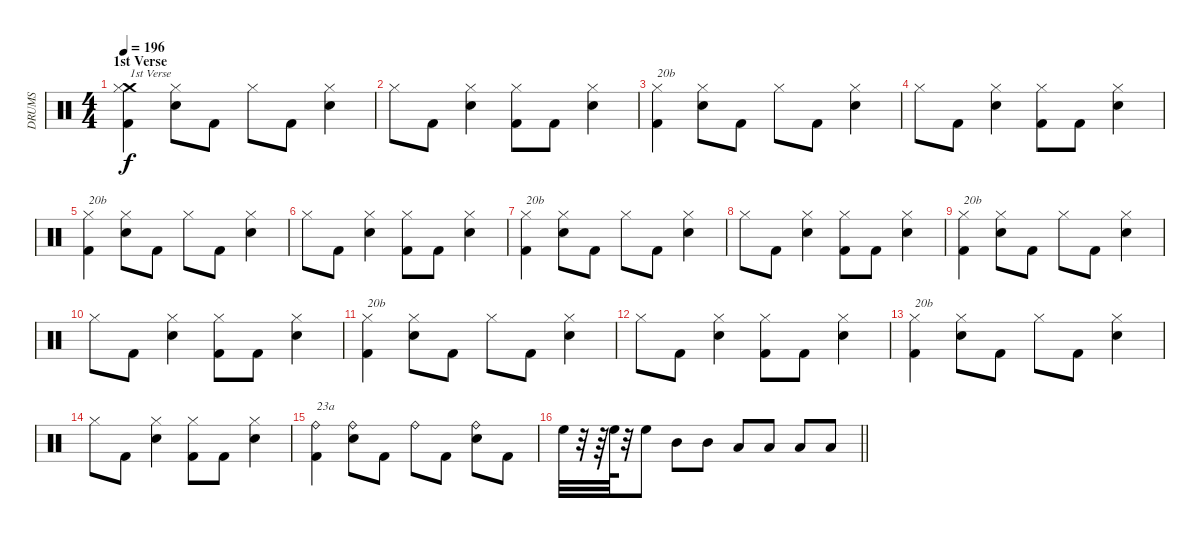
\track ("DRUMS" "DRUMS") {instrument percussion}
\staff {score}
\articulation defaults
\ts (4 4)
\section ("" "1st Verse")
\tempo 196
\clef neutral
\ks c
("Crash medium (hit)" "Hi-Hat (closed)" "Kick (hit) 2").4{txt "1st Verse" dy f} ("Hi-Hat (closed)" "Snare (hit) 2").8 "Kick (hit) 2".8 "Hi-Hat (closed)".8 "Kick (hit) 2".8 ("Hi-Hat (closed)" "Snare (hit) 2").4 |
"Hi-Hat (closed)".8 "Kick (hit) 2".8 ("Hi-Hat (closed)" "Snare (hit) 2").4 ("Hi-Hat (closed)" "Kick (hit) 2").8 "Kick (hit) 2".8 ("Hi-Hat (closed)" "Snare (hit) 2").4 |
("Hi-Hat (closed)" "Kick (hit) 2").4{txt "20b"} ("Hi-Hat (closed)" "Snare (hit) 2").8 "Kick (hit) 2".8 "Hi-Hat (closed)".8 "Kick (hit) 2".8 ("Hi-Hat (closed)" "Snare (hit) 2").4 |
"Hi-Hat (closed)".8 "Kick (hit) 2".8 ("Hi-Hat (closed)" "Snare (hit) 2").4 ("Hi-Hat (closed)" "Kick (hit) 2").8 "Kick (hit) 2".8 ("Hi-Hat (closed)" "Snare (hit) 2").4 |
("Hi-Hat (closed)" "Kick (hit) 2").4{txt "20b"} ("Hi-Hat (closed)" "Snare (hit) 2").8 "Kick (hit) 2".8 "Hi-Hat (closed)".8 "Kick (hit) 2".8 ("Hi-Hat (closed)" "Snare (hit) 2").4 |
"Hi-Hat (closed)".8 "Kick (hit) 2".8 ("Hi-Hat (closed)" "Snare (hit) 2").4 ("Hi-Hat (closed)" "Kick (hit) 2").8 "Kick (hit) 2".8 ("Hi-Hat (closed)" "Snare (hit) 2").4 |
("Hi-Hat (closed)" "Kick (hit) 2").4{txt "20b"} ("Hi-Hat (closed)" "Snare (hit) 2").8 "Kick (hit) 2".8 "Hi-Hat (closed)".8 "Kick (hit) 2".8 ("Hi-Hat (closed)" "Snare (hit) 2").4 |
"Hi-Hat (closed)".8 "Kick (hit) 2".8 ("Hi-Hat (closed)" "Snare (hit) 2").4 ("Hi-Hat (closed)" "Kick (hit) 2").8 "Kick (hit) 2".8 ("Hi-Hat (closed)" "Snare (hit) 2").4 |
("Hi-Hat (closed)" "Kick (hit) 2").4{txt "20b"} ("Hi-Hat (closed)" "Snare (hit) 2").8 "Kick (hit) 2".8 "Hi-Hat (closed)".8 "Kick (hit) 2".8 ("Hi-Hat (closed)" "Snare (hit) 2").4 |
"Hi-Hat (closed)".8 "Kick (hit) 2".8 ("Hi-Hat (closed)" "Snare (hit) 2").4 ("Hi-Hat (closed)" "Kick (hit) 2").8 "Kick (hit) 2".8 ("Hi-Hat (closed)" "Snare (hit) 2").4 |
("Hi-Hat (closed)" "Kick (hit) 2").4{txt "20b"} ("Hi-Hat (closed)" "Snare (hit) 2").8 "Kick (hit) 2".8 "Hi-Hat (closed)".8 "Kick (hit) 2".8 ("Hi-Hat (closed)" "Snare (hit) 2").4 |
"Hi-Hat (closed)".8 "Kick (hit) 2".8 ("Hi-Hat (closed)" "Snare (hit) 2").4 ("Hi-Hat (closed)" "Kick (hit) 2").8 "Kick (hit) 2".8 ("Hi-Hat (closed)" "Snare (hit) 2").4 |
("Hi-Hat (closed)" "Kick (hit) 2").4{txt "20b"} ("Hi-Hat (closed)" "Snare (hit) 2").8 "Kick (hit) 2".8 "Hi-Hat (closed)".8 "Kick (hit) 2".8 ("Hi-Hat (closed)" "Snare (hit) 2").4 |
"Hi-Hat (closed)".8 "Kick (hit) 2".8 ("Hi-Hat (closed)" "Snare (hit) 2").4 ("Hi-Hat (closed)" "Kick (hit) 2").8 "Kick (hit) 2".8 ("Hi-Hat (closed)" "Snare (hit) 2").4 |
("Ride (bell)" "Kick (hit) 2").4{txt "23a"} ("Ride (bell)" "Snare (hit) 2").8 "Kick (hit) 2".8 "Ride (bell)".8 "Kick (hit) 2".8 ("Ride (bell)" "Snare (hit) 2").8 "Kick (hit) 2".8 |
\barLineRight lightlight "High Floor Tom (hit)".32
r.32 r.64 "High Floor Tom (hit)".64 r.32 "High Floor Tom (hit)".8 "Mid Tom (hit)".8 "Mid Tom (hit)".8 "Low Tom (hit)".8 "Low Tom (hit)".8 "Low Floor Tom (hit)".8 "Low Floor Tom (hit)".8
